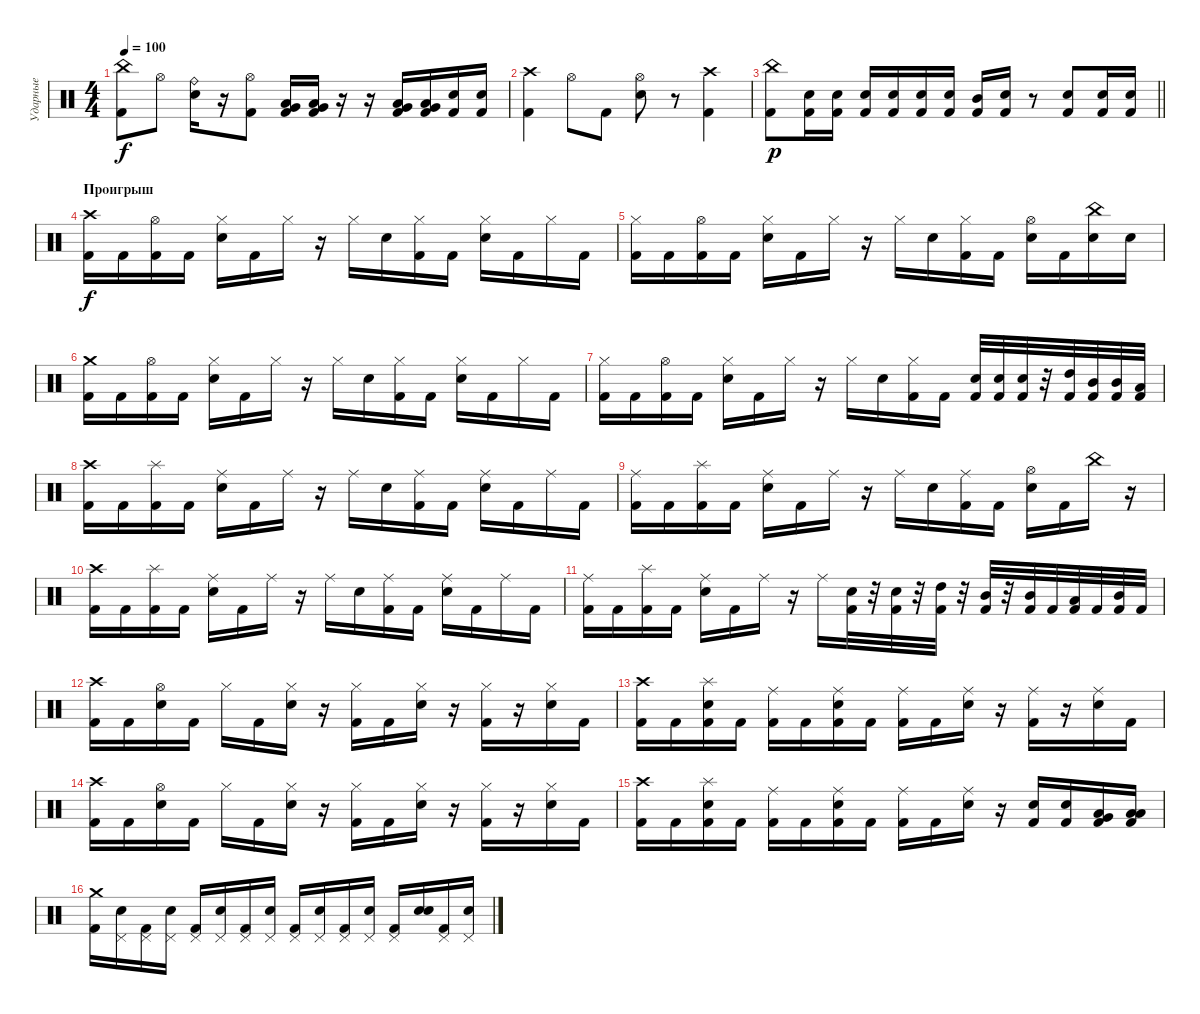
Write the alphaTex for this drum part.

\track ("Ударные" "Ударные") {instrument percussion}
\staff {score}
\articulation defaults
\ts (4 4)
\tempo 100
\clef neutral
\ks c
("China (hit)" "Kick (hit) 2").8{dy f} "Hi-Hat (open)".8 ("Ride (bell)" "Snare (hit) 2").16 r.16 ("Hi-Hat (open)" "Kick (hit) 2").8 ("Low Tom (hit)" "Very Low Tom (hit)" "Kick (hit) 2").16 ("Low Tom (hit)" "Very Low Tom (hit)" "Kick (hit) 2").16 r.16 r.16 ("Low Tom (hit)" "Very Low Tom (hit)" "Kick (hit) 2").16 ("Low Tom (hit)" "Very Low Tom (hit)" "Kick (hit) 2").16 ("Snare (hit) 2" "Kick (hit) 2").16 ("Snare (hit) 2" "Kick (hit) 2").16 |
("Crash high (hit)" "Kick (hit) 2").4 "Hi-Hat (open)".8 "Kick (hit) 2".8 ("Hi-Hat (open)" "Snare (hit) 2").8 r.8 ("Crash high (hit)" "Kick (hit) 2").4 |
\barLineRight lightlight
("China (hit)" "Kick (hit) 2").8{dy p} ("Snare (hit) 2" "Kick (hit) 2").16 ("Snare (hit) 2" "Kick (hit) 2").16 ("Snare (hit) 2" "Kick (hit) 2").16 ("Snare (hit) 2" "Kick (hit) 2").16 ("Snare (hit) 2" "Kick (hit) 2").16 ("Snare (hit) 2" "Kick (hit) 2").16 ("Mid Tom (hit)" "Kick (hit) 2").16 ("Snare (hit) 2" "Kick (hit) 2").16 r.8 ("Snare (hit) 2" "Kick (hit) 2").8 ("Snare (hit) 2" "Kick (hit) 2").16 ("Snare (hit) 2" "Kick (hit) 2").16 |
\section ("" "Проигрыш ")
("Crash high (hit)" "Kick (hit) 2").16{dy f} "Kick (hit) 2".16 ("Hi-Hat (open)" "Kick (hit) 2").16 "Kick (hit) 2".16 ("Hi-Hat (closed)" "Snare (hit) 2").16 "Kick (hit) 2".16 "Hi-Hat (closed)".16 r.16 "Hi-Hat (closed)".16 "Snare (hit) 2".16 ("Hi-Hat (closed)" "Kick (hit) 2").16 "Kick (hit) 2".16 ("Hi-Hat (closed)" "Snare (hit) 2").16 "Kick (hit) 2".16 "Hi-Hat (closed)".16 "Kick (hit) 2".16 |
("Hi-Hat (closed)" "Kick (hit) 2").16 "Kick (hit) 2".16 ("Hi-Hat (open)" "Kick (hit) 2").16 "Kick (hit) 2".16 ("Hi-Hat (closed)" "Snare (hit) 2").16 "Kick (hit) 2".16 "Hi-Hat (closed)".16 r.16 "Hi-Hat (closed)".16 "Snare (hit) 2".16 ("Hi-Hat (closed)" "Kick (hit) 2").16 "Kick (hit) 2".16 ("Hi-Hat (open)" "Snare (hit) 2").16 "Kick (hit) 2".16 ("China (hit)" "Snare (hit) 2").16 "Snare (hit) 2".16 |
("Crash medium (hit)" "Kick (hit) 2").16 "Kick (hit) 2".16 ("Hi-Hat (open)" "Kick (hit) 2").16 "Kick (hit) 2".16 ("Hi-Hat (closed)" "Snare (hit) 2").16 "Kick (hit) 2".16 "Hi-Hat (closed)".16 r.16 "Hi-Hat (closed)".16 "Snare (hit) 2".16 ("Hi-Hat (closed)" "Kick (hit) 2").16 "Kick (hit) 2".16 ("Hi-Hat (closed)" "Snare (hit) 2").16 "Kick (hit) 2".16 "Hi-Hat (closed)".16 "Kick (hit) 2".16 |
("Hi-Hat (closed)" "Kick (hit) 2").16 "Kick (hit) 2".16 ("Hi-Hat (open)" "Kick (hit) 2").16 "Kick (hit) 2".16 ("Hi-Hat (closed)" "Snare (hit) 2").16 "Kick (hit) 2".16 "Hi-Hat (closed)".16 r.16 "Hi-Hat (closed)".16 "Snare (hit) 2".16 ("Hi-Hat (closed)" "Kick (hit) 2").16 "Kick (hit) 2".16 ("Snare (hit) 2" "Kick (hit) 2").32 ("Snare (hit) 2" "Kick (hit) 2").32 ("Snare (hit) 2" "Kick (hit) 2").32 r.32 ("High Tom (hit)" "Kick (hit) 2").32 ("Mid Tom (hit)" "Kick (hit) 2").32 ("Mid Tom (hit)" "Kick (hit) 2").32 ("Low Tom (hit)" "Kick (hit) 2").32 |
("Crash high (hit)" "Kick (hit) 2").16 "Kick (hit) 2".16 ("Splash (hit)" "Kick (hit) 2").16 "Kick (hit) 2".16 ("Ride (middle)" "Snare (hit) 2").16 "Kick (hit) 2".16 "Ride (middle)".16 r.16 "Ride (middle)".16 "Snare (hit) 2".16 ("Ride (middle)" "Kick (hit) 2").16 "Kick (hit) 2".16 ("Ride (middle)" "Snare (hit) 2").16 "Kick (hit) 2".16 "Ride (middle)".16 "Kick (hit) 2".16 |
("Ride (middle)" "Kick (hit) 2").16 "Kick (hit) 2".16 ("Splash (hit)" "Kick (hit) 2").16 "Kick (hit) 2".16 ("Ride (middle)" "Snare (hit) 2").16 "Kick (hit) 2".16 "Ride (middle)".16 r.16 "Ride (middle)".16 "Snare (hit) 2".16 ("Ride (middle)" "Kick (hit) 2").16 "Kick (hit) 2".16 ("Hi-Hat (open)" "Snare (hit) 2").16 "Kick (hit) 2".16 "China (hit)".16 r.16 |
("Crash high (hit)" "Kick (hit) 2").16 "Kick (hit) 2".16 ("Splash (hit)" "Kick (hit) 2").16 "Kick (hit) 2".16 ("Ride (middle)" "Snare (hit) 2").16 "Kick (hit) 2".16 "Ride (middle)".16 r.16 "Ride (middle)".16 "Snare (hit) 2".16 ("Ride (middle)" "Kick (hit) 2").16 "Kick (hit) 2".16 ("Ride (middle)" "Snare (hit) 2").16 "Kick (hit) 2".16 "Ride (middle)".16 "Kick (hit) 2".16 |
("Ride (middle)" "Kick (hit) 2").16 "Kick (hit) 2".16 ("Splash (hit)" "Kick (hit) 2").16 "Kick (hit) 2".16 ("Ride (middle)" "Snare (hit) 2").16 "Kick (hit) 2".16 "Ride (middle)".16 r.16 "Ride (middle)".16 ("Snare (hit) 2" "Kick (hit) 2").32 r.32 ("Snare (hit) 2" "Kick (hit) 2").32 r.32 ("High Tom (hit)" "Kick (hit) 2").32 r.32 ("Mid Tom (hit)" "Kick (hit) 2").32 r.32 ("Mid Tom (hit)" "Kick (hit) 2").32 "Kick (hit) 2".32 ("Low Tom (hit)" "Kick (hit) 2").32 "Kick (hit) 2".32 ("Mid Tom (hit)" "Kick (hit) 2").32 "Kick (hit) 2".32 |
("Crash high (hit)" "Kick (hit) 2").16 "Kick (hit) 2".16 ("Hi-Hat (open)" "Snare (hit) 2").16 "Kick (hit) 2".16 "Hi-Hat (closed)".16 "Kick (hit) 2".16 ("Hi-Hat (closed)" "Snare (hit) 2").16 r.16 ("Hi-Hat (closed)" "Kick (hit) 2").16 "Kick (hit) 2".16 ("Hi-Hat (closed)" "Snare (hit) 2").16 r.16 ("Hi-Hat (closed)" "Kick (hit) 2").16 r.16 ("Hi-Hat (closed)" "Snare (hit) 2").16 "Kick (hit) 2".16 |
("Crash high (hit)" "Kick (hit) 2").16 "Kick (hit) 2".16 ("Splash (hit)" "Snare (hit) 2" "Kick (hit) 2").16 "Kick (hit) 2".16 ("Ride (middle)" "Kick (hit) 2").16 "Kick (hit) 2".16 ("Ride (middle)" "Snare (hit) 2" "Kick (hit) 2").16 "Kick (hit) 2".16 ("Ride (middle)" "Kick (hit) 2").16 "Kick (hit) 2".16 ("Ride (middle)" "Snare (hit) 2").16 r.16 ("Ride (middle)" "Kick (hit) 2").16 r.16 ("Ride (middle)" "Snare (hit) 2").16 "Kick (hit) 2".16 |
("Crash high (hit)" "Kick (hit) 2").16 "Kick (hit) 2".16 ("Hi-Hat (open)" "Snare (hit) 2").16 "Kick (hit) 2".16 "Hi-Hat (closed)".16 "Kick (hit) 2".16 ("Hi-Hat (closed)" "Snare (hit) 2").16 r.16 ("Hi-Hat (closed)" "Kick (hit) 2").16 "Kick (hit) 2".16 ("Hi-Hat (closed)" "Snare (hit) 2").16 r.16 ("Hi-Hat (closed)" "Kick (hit) 2").16 r.16 ("Hi-Hat (closed)" "Snare (hit) 2").16 "Kick (hit) 2".16 |
("Crash high (hit)" "Kick (hit) 2").16 "Kick (hit) 2".16 ("Splash (hit)" "Snare (hit) 2" "Kick (hit) 2").16 "Kick (hit) 2".16 ("Ride (middle)" "Kick (hit) 2").16 "Kick (hit) 2".16 ("Ride (middle)" "Snare (hit) 2" "Kick (hit) 2").16 "Kick (hit) 2".16 ("Ride (middle)" "Kick (hit) 2").16 "Kick (hit) 2".16 ("Ride (middle)" "Snare (hit) 2").16 r.16 ("Snare (hit) 2" "Kick (hit) 2").16 ("Snare (hit) 2" "Kick (hit) 2").16 ("Low Tom (hit)" "Very Low Tom (hit)" "Kick (hit) 2").16 ("Low Tom (hit)" "Low Floor Tom (hit)" "Kick (hit) 2").16 |
("Crash medium (hit)" "Kick (hit) 2").16 ("Pedal Hi-Hat (hit)" "Snare (hit) 2").16 ("Pedal Hi-Hat (hit)" "Kick (hit) 2").16 ("Pedal Hi-Hat (hit)" "Snare (hit) 2").16 ("Pedal Hi-Hat (hit)" "Kick (hit) 2").16 ("Pedal Hi-Hat (hit)" "Snare (hit) 2").16 ("Pedal Hi-Hat (hit)" "Kick (hit) 2").16 ("Pedal Hi-Hat (hit)" "Snare (hit) 2").16 ("Pedal Hi-Hat (hit)" "Kick (hit) 2").16 ("Pedal Hi-Hat (hit)" "Snare (hit) 2").16 ("Pedal Hi-Hat (hit)" "Kick (hit) 2").16 ("Pedal Hi-Hat (hit)" "Snare (hit) 2").16 ("Pedal Hi-Hat (hit)" "Kick (hit) 2").16 ("Snare (hit)" "Snare (hit) 2").16 ("Pedal Hi-Hat (hit)" "Kick (hit) 2").16 ("Pedal Hi-Hat (hit)" "Snare (hit) 2").16
